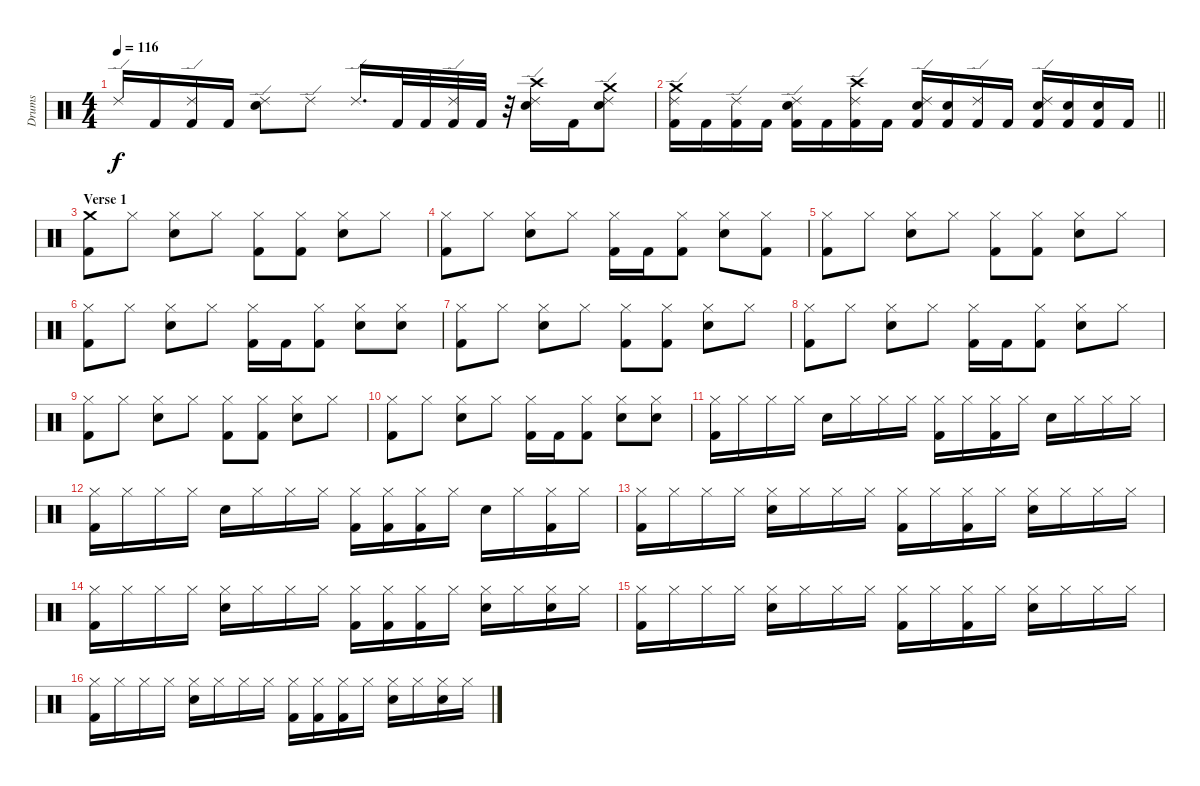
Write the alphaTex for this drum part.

\track ("Drums" "Drums") {instrument percussion}
\staff {score}
\articulation defaults
\ts (4 4)
\tempo 116
\clef neutral
\ks c "Ride (edge) 2".16{dy f} "Kick (hit) 2".16
("Ride (edge) 2" "Kick (hit) 2").16 "Kick (hit) 2".16 ("Ride (edge) 2" "Snare (hit) 2").8 "Ride (edge) 2".8 "Ride (edge) 2".16{d} "Kick (hit) 2".32 "Kick (hit) 2".32 ("Ride (edge) 2" "Kick (hit) 2").32 "Kick (hit) 2".32 r.32 ("Ride (edge) 2" "Snare (hit) 2" "Crash high (hit)").16 "Kick (hit) 2".16 ("Ride (edge) 2" "Snare (hit) 2" "Crash medium (hit)").8 |
\barLineRight lightlight
("Ride (edge) 2" "Kick (hit) 2" "Crash medium (hit)").16 "Kick (hit) 2".16 ("Ride (edge) 2" "Kick (hit) 2").16 "Kick (hit) 2".16 ("Ride (edge) 2" "Kick (hit) 2" "Snare (hit) 2").16 "Kick (hit) 2".16 ("Ride (edge) 2" "Kick (hit) 2" "Crash high (hit)").16 "Kick (hit) 2".16 ("Ride (edge) 2" "Kick (hit) 2" "Snare (hit) 2").16 ("Kick (hit) 2" "Snare (hit) 2").16 ("Ride (edge) 2" "Kick (hit) 2").16 "Kick (hit) 2".16 ("Ride (edge) 2" "Kick (hit) 2" "Snare (hit) 2").16 ("Kick (hit) 2" "Snare (hit) 2").16 ("Kick (hit) 2" "Snare (hit) 2").16 "Kick (hit) 2".16 |
\section ("" "Verse 1")
("Kick (hit) 2" "Crash medium (hit)").8 "Hi-Hat (closed)".8 ("Hi-Hat (closed)" "Snare (hit) 2").8 "Hi-Hat (closed)".8 ("Hi-Hat (closed)" "Kick (hit) 2").8 ("Hi-Hat (closed)" "Kick (hit) 2").8 ("Hi-Hat (closed)" "Snare (hit) 2").8 "Hi-Hat (closed)".8 |
("Hi-Hat (closed)" "Kick (hit) 2").8 "Hi-Hat (closed)".8 ("Hi-Hat (closed)" "Snare (hit) 2").8 "Hi-Hat (closed)".8 ("Hi-Hat (closed)" "Kick (hit) 2").16 "Kick (hit) 2".16 ("Hi-Hat (closed)" "Kick (hit) 2").8 ("Hi-Hat (closed)" "Snare (hit) 2").8 ("Hi-Hat (closed)" "Kick (hit) 2").8 |
("Hi-Hat (closed)" "Kick (hit) 2").8 "Hi-Hat (closed)".8 ("Hi-Hat (closed)" "Snare (hit) 2").8 "Hi-Hat (closed)".8 ("Hi-Hat (closed)" "Kick (hit) 2").8 ("Hi-Hat (closed)" "Kick (hit) 2").8 ("Hi-Hat (closed)" "Snare (hit) 2").8 "Hi-Hat (closed)".8 |
("Hi-Hat (closed)" "Kick (hit) 2").8 "Hi-Hat (closed)".8 ("Hi-Hat (closed)" "Snare (hit) 2").8 "Hi-Hat (closed)".8 ("Hi-Hat (closed)" "Kick (hit) 2").16 "Kick (hit) 2".16 ("Hi-Hat (closed)" "Kick (hit) 2").8 ("Hi-Hat (closed)" "Snare (hit) 2").8 ("Hi-Hat (closed)" "Snare (hit) 2").8 |
("Hi-Hat (closed)" "Kick (hit) 2").8 "Hi-Hat (closed)".8 ("Hi-Hat (closed)" "Snare (hit) 2").8 "Hi-Hat (closed)".8 ("Hi-Hat (closed)" "Kick (hit) 2").8 ("Hi-Hat (closed)" "Kick (hit) 2").8 ("Hi-Hat (closed)" "Snare (hit) 2").8 "Hi-Hat (closed)".8 |
("Hi-Hat (closed)" "Kick (hit) 2").8 "Hi-Hat (closed)".8 ("Hi-Hat (closed)" "Snare (hit) 2").8 "Hi-Hat (closed)".8 ("Hi-Hat (closed)" "Kick (hit) 2").16 "Kick (hit) 2".16 ("Hi-Hat (closed)" "Kick (hit) 2").8 ("Hi-Hat (closed)" "Snare (hit) 2").8 "Hi-Hat (closed)".8 |
("Hi-Hat (closed)" "Kick (hit) 2").8 "Hi-Hat (closed)".8 ("Hi-Hat (closed)" "Snare (hit) 2").8 "Hi-Hat (closed)".8 ("Hi-Hat (closed)" "Kick (hit) 2").8 ("Hi-Hat (closed)" "Kick (hit) 2").8 ("Hi-Hat (closed)" "Snare (hit) 2").8 "Hi-Hat (closed)".8 |
("Hi-Hat (closed)" "Kick (hit) 2").8 "Hi-Hat (closed)".8 ("Hi-Hat (closed)" "Snare (hit) 2").8 "Hi-Hat (closed)".8 ("Hi-Hat (closed)" "Kick (hit) 2").16 "Kick (hit) 2".16 ("Hi-Hat (closed)" "Kick (hit) 2").8 ("Hi-Hat (closed)" "Snare (hit) 2").8 ("Hi-Hat (closed)" "Snare (hit) 2").8 |
("Hi-Hat (closed)" "Kick (hit) 2").16 "Hi-Hat (closed)".16 "Hi-Hat (closed)".16 "Hi-Hat (closed)".16 "Snare (hit) 2".16 "Hi-Hat (closed)".16 "Hi-Hat (closed)".16 "Hi-Hat (closed)".16 ("Hi-Hat (closed)" "Kick (hit) 2").16 "Hi-Hat (closed)".16 ("Hi-Hat (closed)" "Kick (hit) 2").16 "Hi-Hat (closed)".16 "Snare (hit) 2".16 "Hi-Hat (closed)".16 "Hi-Hat (closed)".16 "Hi-Hat (closed)".16 |
("Hi-Hat (closed)" "Kick (hit) 2").16 "Hi-Hat (closed)".16 "Hi-Hat (closed)".16 "Hi-Hat (closed)".16 "Snare (hit) 2".16 "Hi-Hat (closed)".16 "Hi-Hat (closed)".16 "Hi-Hat (closed)".16 ("Hi-Hat (closed)" "Kick (hit) 2").16 ("Hi-Hat (closed)" "Kick (hit) 2").16 ("Hi-Hat (closed)" "Kick (hit) 2").16 "Hi-Hat (closed)".16 "Snare (hit) 2".16 "Hi-Hat (closed)".16 ("Hi-Hat (closed)" "Kick (hit) 2").16 "Hi-Hat (closed)".16 |
("Hi-Hat (closed)" "Kick (hit) 2").16 "Hi-Hat (closed)".16 "Hi-Hat (closed)".16 "Hi-Hat (closed)".16 ("Hi-Hat (closed)" "Snare (hit) 2").16 "Hi-Hat (closed)".16 "Hi-Hat (closed)".16 "Hi-Hat (closed)".16 ("Hi-Hat (closed)" "Kick (hit) 2").16 "Hi-Hat (closed)".16 ("Hi-Hat (closed)" "Kick (hit) 2").16 "Hi-Hat (closed)".16 ("Hi-Hat (closed)" "Snare (hit) 2").16 "Hi-Hat (closed)".16 "Hi-Hat (closed)".16 "Hi-Hat (closed)".16 |
("Hi-Hat (closed)" "Kick (hit) 2").16 "Hi-Hat (closed)".16 "Hi-Hat (closed)".16 "Hi-Hat (closed)".16 ("Hi-Hat (closed)" "Snare (hit) 2").16 "Hi-Hat (closed)".16 "Hi-Hat (closed)".16 "Hi-Hat (closed)".16 ("Hi-Hat (closed)" "Kick (hit) 2").16 ("Hi-Hat (closed)" "Kick (hit) 2").16 ("Hi-Hat (closed)" "Kick (hit) 2").16 "Hi-Hat (closed)".16 ("Hi-Hat (closed)" "Snare (hit) 2").16 "Hi-Hat (closed)".16 ("Hi-Hat (closed)" "Snare (hit) 2").16 "Hi-Hat (closed)".16 |
("Hi-Hat (closed)" "Kick (hit) 2").16 "Hi-Hat (closed)".16 "Hi-Hat (closed)".16 "Hi-Hat (closed)".16 ("Hi-Hat (closed)" "Snare (hit) 2").16 "Hi-Hat (closed)".16 "Hi-Hat (closed)".16 "Hi-Hat (closed)".16 ("Hi-Hat (closed)" "Kick (hit) 2").16 "Hi-Hat (closed)".16 ("Hi-Hat (closed)" "Kick (hit) 2").16 "Hi-Hat (closed)".16 ("Hi-Hat (closed)" "Snare (hit) 2").16 "Hi-Hat (closed)".16 "Hi-Hat (closed)".16 "Hi-Hat (closed)".16 |
("Hi-Hat (closed)" "Kick (hit) 2").16 "Hi-Hat (closed)".16 "Hi-Hat (closed)".16 "Hi-Hat (closed)".16 ("Hi-Hat (closed)" "Snare (hit) 2").16 "Hi-Hat (closed)".16 "Hi-Hat (closed)".16 "Hi-Hat (closed)".16 ("Hi-Hat (closed)" "Kick (hit) 2").16 ("Hi-Hat (closed)" "Kick (hit) 2").16 ("Hi-Hat (closed)" "Kick (hit) 2").16 "Hi-Hat (closed)".16 ("Hi-Hat (closed)" "Snare (hit) 2").16 "Hi-Hat (closed)".16 ("Hi-Hat (closed)" "Snare (hit) 2").16 "Hi-Hat (closed)".16
